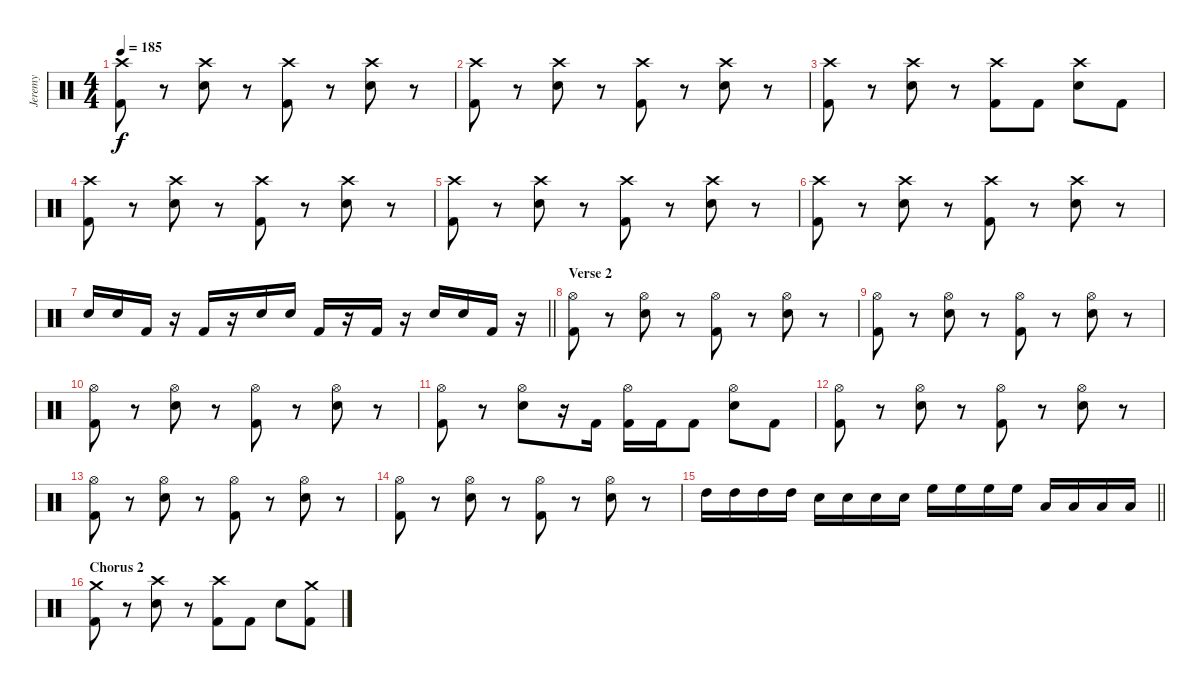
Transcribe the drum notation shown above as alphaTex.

\track ("Jeremy" "Jeremy") {instrument percussion}
\staff {score}
\articulation defaults
\ts (4 4)
\tempo 185
\clef neutral
\ks c
("Crash high (hit)" "Kick (hit) 2").8{dy f} r.8 ("Crash high (hit)" "Snare (hit) 2").8 r.8 ("Crash high (hit)" "Kick (hit) 2").8 r.8 ("Crash high (hit)" "Snare (hit) 2").8 r.8 |
("Crash high (hit)" "Kick (hit) 2").8 r.8 ("Crash high (hit)" "Snare (hit) 2").8 r.8 ("Crash high (hit)" "Kick (hit) 2").8 r.8 ("Crash high (hit)" "Snare (hit) 2").8 r.8 |
("Crash high (hit)" "Kick (hit) 2").8 r.8 ("Crash high (hit)" "Snare (hit) 2").8 r.8 ("Crash high (hit)" "Kick (hit) 2").8 "Kick (hit) 2".8 ("Crash high (hit)" "Snare (hit) 2").8 "Kick (hit) 2".8 |
("Crash high (hit)" "Kick (hit) 2").8 r.8 ("Crash high (hit)" "Snare (hit) 2").8 r.8 ("Crash high (hit)" "Kick (hit) 2").8 r.8 ("Crash high (hit)" "Snare (hit) 2").8 r.8 |
("Crash high (hit)" "Kick (hit) 2").8 r.8 ("Crash high (hit)" "Snare (hit) 2").8 r.8 ("Crash high (hit)" "Kick (hit) 2").8 r.8 ("Crash high (hit)" "Snare (hit) 2").8 r.8 |
("Crash high (hit)" "Kick (hit) 2").8 r.8 ("Crash high (hit)" "Snare (hit) 2").8 r.8 ("Crash high (hit)" "Kick (hit) 2").8 r.8 ("Crash high (hit)" "Snare (hit) 2").8 r.8 |
\barLineRight lightlight "Snare (hit) 2".16 "Snare (hit) 2".16 "Kick (hit) 2".16
r.16 "Kick (hit) 2".16 r.16 "Snare (hit) 2".16 "Snare (hit) 2".16 "Kick (hit) 2".16 r.16 "Kick (hit) 2".16 r.16 "Snare (hit) 2".16 "Snare (hit) 2".16 "Kick (hit) 2".16 r.16 |
\section ("" "Verse 2")
("Hi-Hat (open)" "Kick (hit) 2").8 r.8 ("Hi-Hat (open)" "Snare (hit) 2").8 r.8 ("Hi-Hat (open)" "Kick (hit) 2").8 r.8 ("Hi-Hat (open)" "Snare (hit) 2").8 r.8 |
("Hi-Hat (open)" "Kick (hit) 2").8 r.8 ("Hi-Hat (open)" "Snare (hit) 2").8 r.8 ("Hi-Hat (open)" "Kick (hit) 2").8 r.8 ("Hi-Hat (open)" "Snare (hit) 2").8 r.8 |
("Hi-Hat (open)" "Kick (hit) 2").8 r.8 ("Hi-Hat (open)" "Snare (hit) 2").8 r.8 ("Hi-Hat (open)" "Kick (hit) 2").8 r.8 ("Hi-Hat (open)" "Snare (hit) 2").8 r.8 |
("Hi-Hat (open)" "Kick (hit) 2").8 r.8 ("Hi-Hat (open)" "Snare (hit) 2").8 r.16 "Kick (hit) 2".16 ("Hi-Hat (open)" "Kick (hit) 2").16 "Kick (hit) 2".16 "Kick (hit) 2".8 ("Hi-Hat (open)" "Snare (hit) 2").8 "Kick (hit) 2".8 |
("Hi-Hat (open)" "Kick (hit) 2").8 r.8 ("Hi-Hat (open)" "Snare (hit) 2").8 r.8 ("Hi-Hat (open)" "Kick (hit) 2").8 r.8 ("Hi-Hat (open)" "Snare (hit) 2").8 r.8 |
("Hi-Hat (open)" "Kick (hit) 2").8 r.8 ("Hi-Hat (open)" "Snare (hit) 2").8 r.8 ("Hi-Hat (open)" "Kick (hit) 2").8 r.8 ("Hi-Hat (open)" "Snare (hit) 2").8 r.8 |
("Hi-Hat (open)" "Kick (hit) 2").8 r.8 ("Hi-Hat (open)" "Snare (hit) 2").8 r.8 ("Hi-Hat (open)" "Kick (hit) 2").8 r.8 ("Hi-Hat (open)" "Snare (hit) 2").8 r.8 |
\barLineRight lightlight "High Tom (hit)".16 "High Tom (hit)".16 "High Tom (hit)".16 "High Tom (hit)".16 "Snare (hit) 2".16 "Snare (hit) 2".16 "Snare (hit) 2".16 "Snare (hit) 2".16 "High Floor Tom (hit)".16 "High Floor Tom (hit)".16 "High Floor Tom (hit)".16 "High Floor Tom (hit)".16 "Low Tom (hit)".16 "Low Tom (hit)".16 "Low Tom (hit)".16 "Low Tom (hit)".16
|
\section ("" "Chorus 2")
("Crash medium (hit)" "Kick (hit) 2").8 r.8 ("Crash high (hit)" "Snare (hit) 2").8 r.8 ("Crash high (hit)" "Kick (hit) 2").8 "Kick (hit) 2".8 "Snare (hit) 2".8 ("Crash medium (hit)" "Kick (hit) 2").8
